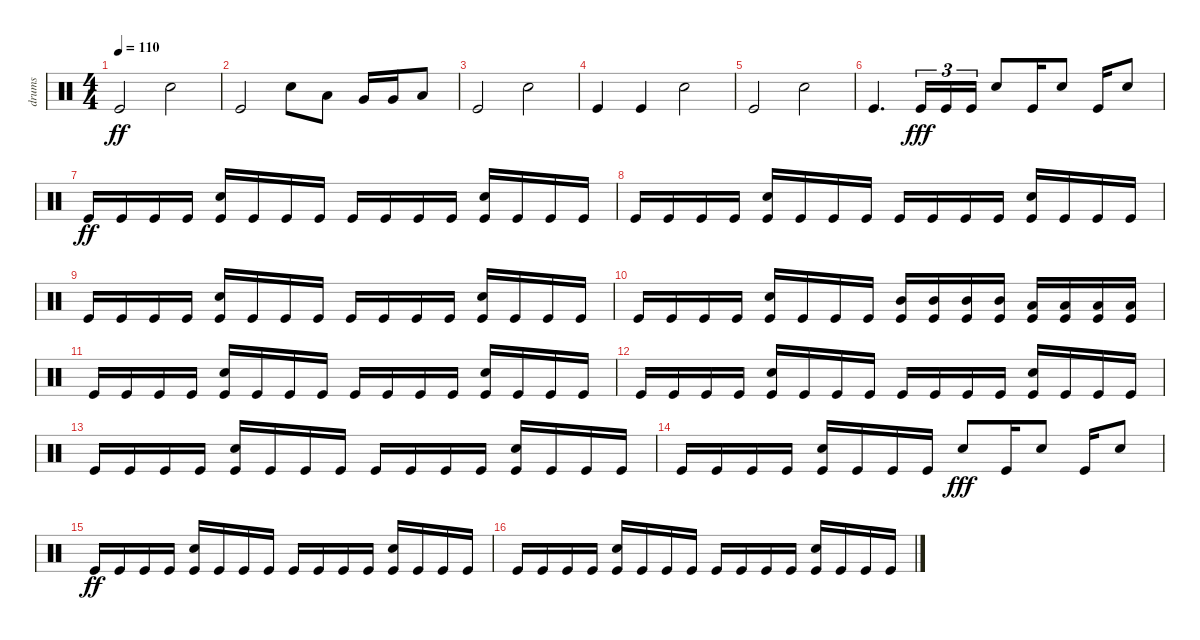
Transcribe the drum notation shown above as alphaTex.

\track ("drums" "drums") {instrument percussion}
\staff {score}
\articulation defaults
\ts (4 4)
\tempo 110
\clef neutral
\ks c "Kick (hit)".2{dy ff} "Electric Snare (hit)".2
|
"Kick (hit)".2 "Electric Snare (hit)".8 "Low Tom (hit)".8 "Very Low Tom (hit)".16 "Very Low Tom (hit)".16 "Low Floor Tom (hit)".8 |
"Kick (hit)".2 "Electric Snare (hit)".2 |
"Kick (hit)".4 "Kick (hit)".4 "Electric Snare (hit)".2 |
"Kick (hit)".2 "Electric Snare (hit)".2 |
"Kick (hit)".4{d} "Kick (hit)".16{tu (3 2) dy fff} "Kick (hit)".16{tu (3 2)} "Kick (hit)".16{tu (3 2)} "Electric Snare (hit)".8 "Kick (hit)".16 "Electric Snare (hit)".8 "Kick (hit)".16 "Electric Snare (hit)".8 |
"Kick (hit)".16{dy ff} "Kick (hit)".16 "Kick (hit)".16 "Kick (hit)".16 ("Electric Snare (hit)" "Kick (hit)").16 "Kick (hit)".16 "Kick (hit)".16 "Kick (hit)".16 "Kick (hit)".16 "Kick (hit)".16 "Kick (hit)".16 "Kick (hit)".16 ("Electric Snare (hit)" "Kick (hit)").16 "Kick (hit)".16 "Kick (hit)".16 "Kick (hit)".16 |
"Kick (hit)".16 "Kick (hit)".16 "Kick (hit)".16 "Kick (hit)".16 ("Electric Snare (hit)" "Kick (hit)").16 "Kick (hit)".16 "Kick (hit)".16 "Kick (hit)".16 "Kick (hit)".16 "Kick (hit)".16 "Kick (hit)".16 "Kick (hit)".16 ("Electric Snare (hit)" "Kick (hit)").16 "Kick (hit)".16 "Kick (hit)".16 "Kick (hit)".16 |
"Kick (hit)".16 "Kick (hit)".16 "Kick (hit)".16 "Kick (hit)".16 ("Electric Snare (hit)" "Kick (hit)").16 "Kick (hit)".16 "Kick (hit)".16 "Kick (hit)".16 "Kick (hit)".16 "Kick (hit)".16 "Kick (hit)".16 "Kick (hit)".16 ("Electric Snare (hit)" "Kick (hit)").16 "Kick (hit)".16 "Kick (hit)".16 "Kick (hit)".16 |
"Kick (hit)".16 "Kick (hit)".16 "Kick (hit)".16 "Kick (hit)".16 ("Electric Snare (hit)" "Kick (hit)").16 "Kick (hit)".16 "Kick (hit)".16 "Kick (hit)".16 ("Mid Tom (hit)" "Kick (hit)").16 ("Mid Tom (hit)" "Kick (hit)").16 ("Mid Tom (hit)" "Kick (hit)").16 ("Mid Tom (hit)" "Kick (hit)").16 ("Low Tom (hit)" "Kick (hit)").16 ("Low Tom (hit)" "Kick (hit)").16 ("Low Tom (hit)" "Kick (hit)").16 ("Low Tom (hit)" "Kick (hit)").16 |
"Kick (hit)".16 "Kick (hit)".16 "Kick (hit)".16 "Kick (hit)".16 ("Electric Snare (hit)" "Kick (hit)").16 "Kick (hit)".16 "Kick (hit)".16 "Kick (hit)".16 "Kick (hit)".16 "Kick (hit)".16 "Kick (hit)".16 "Kick (hit)".16 ("Electric Snare (hit)" "Kick (hit)").16 "Kick (hit)".16 "Kick (hit)".16 "Kick (hit)".16 |
"Kick (hit)".16 "Kick (hit)".16 "Kick (hit)".16 "Kick (hit)".16 ("Electric Snare (hit)" "Kick (hit)").16 "Kick (hit)".16 "Kick (hit)".16 "Kick (hit)".16 "Kick (hit)".16 "Kick (hit)".16 "Kick (hit)".16 "Kick (hit)".16 ("Electric Snare (hit)" "Kick (hit)").16 "Kick (hit)".16 "Kick (hit)".16 "Kick (hit)".16 |
"Kick (hit)".16 "Kick (hit)".16 "Kick (hit)".16 "Kick (hit)".16 ("Electric Snare (hit)" "Kick (hit)").16 "Kick (hit)".16 "Kick (hit)".16 "Kick (hit)".16 "Kick (hit)".16 "Kick (hit)".16 "Kick (hit)".16 "Kick (hit)".16 ("Electric Snare (hit)" "Kick (hit)").16 "Kick (hit)".16 "Kick (hit)".16 "Kick (hit)".16 |
"Kick (hit)".16 "Kick (hit)".16 "Kick (hit)".16 "Kick (hit)".16 ("Electric Snare (hit)" "Kick (hit)").16 "Kick (hit)".16 "Kick (hit)".16 "Kick (hit)".16 "Electric Snare (hit)".8{dy fff} "Kick (hit)".16 "Electric Snare (hit)".8 "Kick (hit)".16 "Electric Snare (hit)".8 |
"Kick (hit)".16{dy ff} "Kick (hit)".16 "Kick (hit)".16 "Kick (hit)".16 ("Electric Snare (hit)" "Kick (hit)").16 "Kick (hit)".16 "Kick (hit)".16 "Kick (hit)".16 "Kick (hit)".16 "Kick (hit)".16 "Kick (hit)".16 "Kick (hit)".16 ("Electric Snare (hit)" "Kick (hit)").16 "Kick (hit)".16 "Kick (hit)".16 "Kick (hit)".16 |
"Kick (hit)".16 "Kick (hit)".16 "Kick (hit)".16 "Kick (hit)".16 ("Electric Snare (hit)" "Kick (hit)").16 "Kick (hit)".16 "Kick (hit)".16 "Kick (hit)".16 "Kick (hit)".16 "Kick (hit)".16 "Kick (hit)".16 "Kick (hit)".16 ("Electric Snare (hit)" "Kick (hit)").16 "Kick (hit)".16 "Kick (hit)".16 "Kick (hit)".16
